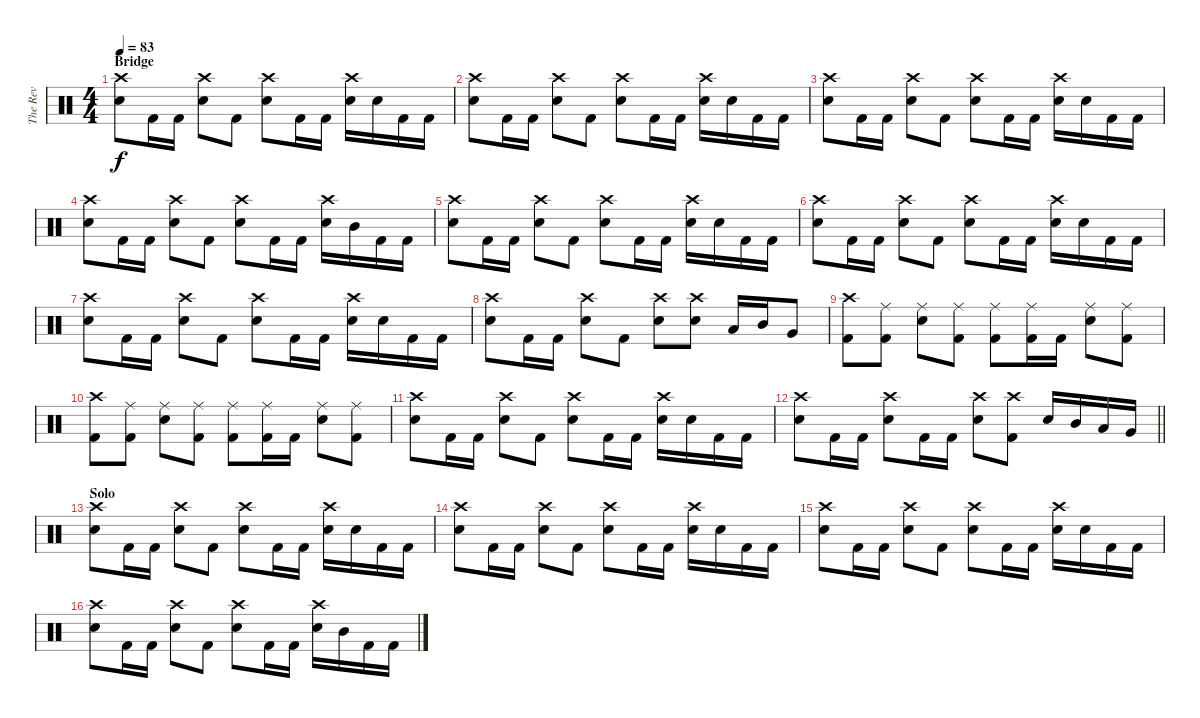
\track ("The Rev" "The Rev") {instrument percussion}
\staff {score}
\articulation defaults
\ts (4 4)
\section ("" "Bridge")
\tempo 83
\clef neutral
\ks c
("Crash high (hit)" "Snare (hit) 2").8{dy f} "Kick (hit) 2".16 "Kick (hit) 2".16 ("Crash high (hit)" "Snare (hit) 2").8 "Kick (hit) 2".8 ("Crash high (hit)" "Snare (hit) 2").8 "Kick (hit) 2".16 "Kick (hit) 2".16 ("Crash high (hit)" "Snare (hit) 2").16 "Snare (hit) 2".16 "Kick (hit) 2".16 "Kick (hit) 2".16 |
("Crash high (hit)" "Snare (hit) 2").8 "Kick (hit) 2".16 "Kick (hit) 2".16 ("Crash high (hit)" "Snare (hit) 2").8 "Kick (hit) 2".8 ("Crash high (hit)" "Snare (hit) 2").8 "Kick (hit) 2".16 "Kick (hit) 2".16 ("Crash high (hit)" "Snare (hit) 2").16 "Snare (hit) 2".16 "Kick (hit) 2".16 "Kick (hit) 2".16 |
("Crash high (hit)" "Snare (hit) 2").8 "Kick (hit) 2".16 "Kick (hit) 2".16 ("Crash high (hit)" "Snare (hit) 2").8 "Kick (hit) 2".8 ("Crash high (hit)" "Snare (hit) 2").8 "Kick (hit) 2".16 "Kick (hit) 2".16 ("Crash high (hit)" "Snare (hit) 2").16 "Snare (hit) 2".16 "Kick (hit) 2".16 "Kick (hit) 2".16 |
("Crash high (hit)" "Snare (hit) 2").8 "Kick (hit) 2".16 "Kick (hit) 2".16 ("Crash high (hit)" "Snare (hit) 2").8 "Kick (hit) 2".8 ("Crash high (hit)" "Snare (hit) 2").8 "Kick (hit) 2".16 "Kick (hit) 2".16 ("Crash high (hit)" "Snare (hit) 2").16 "Mid Tom (hit)".16 "Kick (hit) 2".16 "Kick (hit) 2".16 |
("Crash high (hit)" "Snare (hit) 2").8 "Kick (hit) 2".16 "Kick (hit) 2".16 ("Crash high (hit)" "Snare (hit) 2").8 "Kick (hit) 2".8 ("Crash high (hit)" "Snare (hit) 2").8 "Kick (hit) 2".16 "Kick (hit) 2".16 ("Crash high (hit)" "Snare (hit) 2").16 "Snare (hit) 2".16 "Kick (hit) 2".16 "Kick (hit) 2".16 |
("Crash high (hit)" "Snare (hit) 2").8 "Kick (hit) 2".16 "Kick (hit) 2".16 ("Crash high (hit)" "Snare (hit) 2").8 "Kick (hit) 2".8 ("Crash high (hit)" "Snare (hit) 2").8 "Kick (hit) 2".16 "Kick (hit) 2".16 ("Crash high (hit)" "Snare (hit) 2").16 "Snare (hit) 2".16 "Kick (hit) 2".16 "Kick (hit) 2".16 |
("Crash high (hit)" "Snare (hit) 2").8 "Kick (hit) 2".16 "Kick (hit) 2".16 ("Crash high (hit)" "Snare (hit) 2").8 "Kick (hit) 2".8 ("Crash high (hit)" "Snare (hit) 2").8 "Kick (hit) 2".16 "Kick (hit) 2".16 ("Crash high (hit)" "Snare (hit) 2").16 "Snare (hit) 2".16 "Kick (hit) 2".16 "Kick (hit) 2".16 |
("Crash high (hit)" "Snare (hit) 2").8 "Kick (hit) 2".16 "Kick (hit) 2".16 ("Crash high (hit)" "Snare (hit) 2").8 "Kick (hit) 2".8 ("Crash high (hit)" "Snare (hit) 2").8 ("Crash high (hit)" "Snare (hit) 2").8 "Low Tom (hit)".16 "Mid Tom (hit)".16 "Very Low Tom (hit)".8 |
("Crash high (hit)" "Kick (hit) 2").8 ("Ride (middle)" "Kick (hit) 2").8 ("Ride (middle)" "Snare (hit) 2").8 ("Ride (middle)" "Kick (hit) 2").8 ("Ride (middle)" "Kick (hit) 2").8 ("Ride (middle)" "Kick (hit) 2").16 "Kick (hit) 2".16 ("Ride (middle)" "Snare (hit) 2").8 ("Ride (middle)" "Kick (hit) 2").8 |
("Crash high (hit)" "Kick (hit) 2").8 ("Ride (middle)" "Kick (hit) 2").8 ("Ride (middle)" "Snare (hit) 2").8 ("Ride (middle)" "Kick (hit) 2").8 ("Ride (middle)" "Kick (hit) 2").8 ("Ride (middle)" "Kick (hit) 2").16 "Kick (hit) 2".16 ("Ride (middle)" "Snare (hit) 2").8 ("Ride (middle)" "Kick (hit) 2").8 |
("Crash high (hit)" "Snare (hit) 2").8 "Kick (hit) 2".16 "Kick (hit) 2".16 ("Crash high (hit)" "Snare (hit) 2").8 "Kick (hit) 2".8 ("Crash high (hit)" "Snare (hit) 2").8 "Kick (hit) 2".16 "Kick (hit) 2".16 ("Crash high (hit)" "Snare (hit) 2").16 "Snare (hit) 2".16 "Kick (hit) 2".16 "Kick (hit) 2".16 |
\barLineRight lightlight
("Crash high (hit)" "Snare (hit) 2").8 "Kick (hit) 2".16 "Kick (hit) 2".16 ("Crash high (hit)" "Snare (hit) 2").8 "Kick (hit) 2".16 "Kick (hit) 2".16 ("Crash high (hit)" "Snare (hit) 2").8 ("Crash high (hit)" "Kick (hit) 2").8 "Snare (hit) 2".16 "Mid Tom (hit)".16 "Low Tom (hit)".16 "Very Low Tom (hit)".16 |
\section ("" "Solo")
("Crash high (hit)" "Snare (hit) 2").8 "Kick (hit) 2".16 "Kick (hit) 2".16 ("Crash high (hit)" "Snare (hit) 2").8 "Kick (hit) 2".8 ("Crash high (hit)" "Snare (hit) 2").8 "Kick (hit) 2".16 "Kick (hit) 2".16 ("Crash high (hit)" "Snare (hit) 2").16 "Snare (hit) 2".16 "Kick (hit) 2".16 "Kick (hit) 2".16 |
("Crash high (hit)" "Snare (hit) 2").8 "Kick (hit) 2".16 "Kick (hit) 2".16 ("Crash high (hit)" "Snare (hit) 2").8 "Kick (hit) 2".8 ("Crash high (hit)" "Snare (hit) 2").8 "Kick (hit) 2".16 "Kick (hit) 2".16 ("Crash high (hit)" "Snare (hit) 2").16 "Snare (hit) 2".16 "Kick (hit) 2".16 "Kick (hit) 2".16 |
("Crash high (hit)" "Snare (hit) 2").8 "Kick (hit) 2".16 "Kick (hit) 2".16 ("Crash high (hit)" "Snare (hit) 2").8 "Kick (hit) 2".8 ("Crash high (hit)" "Snare (hit) 2").8 "Kick (hit) 2".16 "Kick (hit) 2".16 ("Crash high (hit)" "Snare (hit) 2").16 "Snare (hit) 2".16 "Kick (hit) 2".16 "Kick (hit) 2".16 |
("Crash high (hit)" "Snare (hit) 2").8 "Kick (hit) 2".16 "Kick (hit) 2".16 ("Crash high (hit)" "Snare (hit) 2").8 "Kick (hit) 2".8 ("Crash high (hit)" "Snare (hit) 2").8 "Kick (hit) 2".16 "Kick (hit) 2".16 ("Crash high (hit)" "Snare (hit) 2").16 "Mid Tom (hit)".16 "Kick (hit) 2".16 "Kick (hit) 2".16
